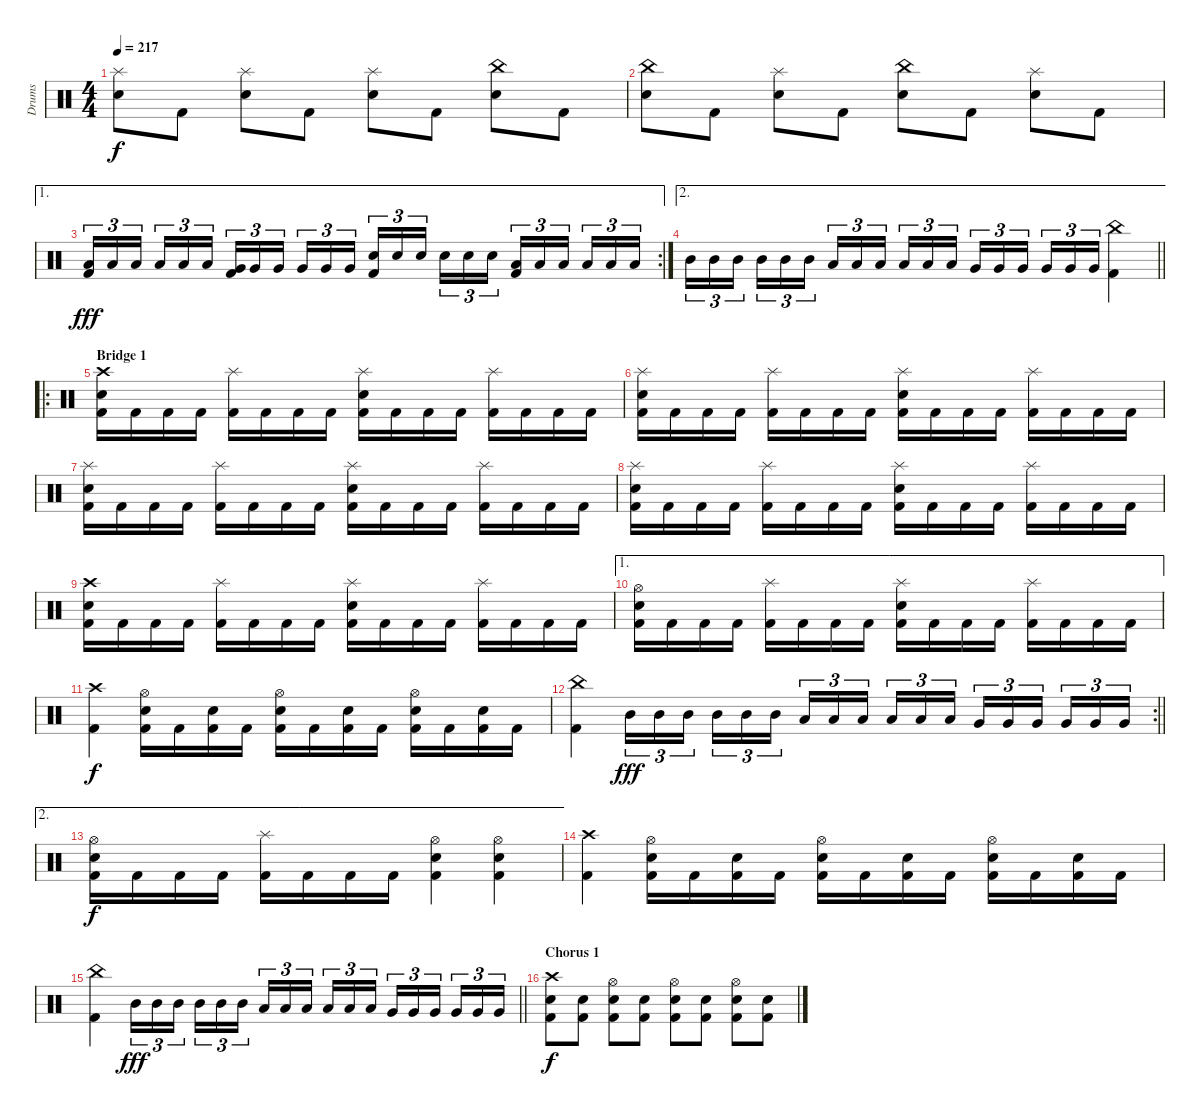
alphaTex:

\track ("Drums" "Drums") {instrument percussion}
\staff {score}
\articulation defaults
\ts (4 4)
\tempo 217
\clef neutral
\ks c
("Splash (hit)" "Electric Snare (hit)").8{dy f} "Kick (hit) 2".8 ("Splash (hit)" "Electric Snare (hit)").8 "Kick (hit) 2".8 ("Splash (hit)" "Electric Snare (hit)").8 "Kick (hit) 2".8 ("China (hit)" "Electric Snare (hit)").8 "Kick (hit) 2".8 |
("China (hit)" "Electric Snare (hit)").8 "Kick (hit) 2".8 ("Splash (hit)" "Electric Snare (hit)").8 "Kick (hit) 2".8 ("China (hit)" "Electric Snare (hit)").8 "Kick (hit) 2".8 ("Splash (hit)" "Electric Snare (hit)").8 "Kick (hit) 2".8 |
\ae 1
\rc 2
("Low Tom (hit)" "Kick (hit) 2").16{tu (3 2) dy fff} "Low Tom (hit)".16{tu (3 2)} "Low Tom (hit)".16{tu (3 2) beam splitsecondary} "Low Tom (hit)".16{tu (3 2)} "Low Tom (hit)".16{tu (3 2)} "Low Tom (hit)".16{tu (3 2)} ("Very Low Tom (hit)" "Kick (hit) 2").16{tu (3 2)} "Very Low Tom (hit)".16{tu (3 2)} "Very Low Tom (hit)".16{tu (3 2) beam splitsecondary} "Very Low Tom (hit)".16{tu (3 2)} "Very Low Tom (hit)".16{tu (3 2)} "Very Low Tom (hit)".16{tu (3 2)} ("Electric Snare (hit)" "Kick (hit) 2").16{tu (3 2)} "Electric Snare (hit)".16{tu (3 2)} "Electric Snare (hit)".16{tu (3 2) beam splitsecondary} "Electric Snare (hit)".16{tu (3 2)} "Electric Snare (hit)".16{tu (3 2)} "Electric Snare (hit)".16{tu (3 2)} ("Low Tom (hit)" "Kick (hit) 2").16{tu (3 2)} "Low Tom (hit)".16{tu (3 2)} "Low Tom (hit)".16{tu (3 2) beam splitsecondary} "Low Tom (hit)".16{tu (3 2)} "Low Tom (hit)".16{tu (3 2)} "Low Tom (hit)".16{tu (3 2)} |
\ae 2
\barLineRight lightlight "Mid Tom (hit)".16{tu (3 2)} "Mid Tom (hit)".16{tu (3 2)} "Mid Tom (hit)".16{tu (3 2) beam splitsecondary} "Mid Tom (hit)".16{tu (3 2)} "Mid Tom (hit)".16{tu (3 2)} "Mid Tom (hit)".16{tu (3 2)} "Low Tom (hit)".16{tu (3 2)} "Low Tom (hit)".16{tu (3 2)} "Low Tom (hit)".16{tu (3 2) beam splitsecondary} "Low Tom (hit)".16{tu (3 2)} "Low Tom (hit)".16{tu (3 2)} "Low Tom (hit)".16{tu (3 2)} "Very Low Tom (hit)".16{tu (3 2)} "Very Low Tom (hit)".16{tu (3 2)} "Very Low Tom (hit)".16{tu (3 2) beam splitsecondary} "Very Low Tom (hit)".16{tu (3 2)} "Very Low Tom (hit)".16{tu (3 2)} "Very Low Tom (hit)".16{tu (3 2)}
("China (hit)" "Kick (hit) 2").4 |
\ro
\section ("" "Bridge 1")
("Crash high (hit)" "Electric Snare (hit)" "Kick (hit) 2").16 "Kick (hit) 2".16 "Kick (hit) 2".16 "Kick (hit) 2".16 ("Splash (hit)" "Kick (hit) 2").16 "Kick (hit) 2".16 "Kick (hit) 2".16 "Kick (hit) 2".16 ("Splash (hit)" "Electric Snare (hit)" "Kick (hit) 2").16 "Kick (hit) 2".16 "Kick (hit) 2".16 "Kick (hit) 2".16 ("Splash (hit)" "Kick (hit) 2").16 "Kick (hit) 2".16 "Kick (hit) 2".16 "Kick (hit) 2".16 |
("Splash (hit)" "Electric Snare (hit)" "Kick (hit) 2").16 "Kick (hit) 2".16 "Kick (hit) 2".16 "Kick (hit) 2".16 ("Splash (hit)" "Kick (hit) 2").16 "Kick (hit) 2".16 "Kick (hit) 2".16 "Kick (hit) 2".16 ("Splash (hit)" "Electric Snare (hit)" "Kick (hit) 2").16 "Kick (hit) 2".16 "Kick (hit) 2".16 "Kick (hit) 2".16 ("Splash (hit)" "Kick (hit) 2").16 "Kick (hit) 2".16 "Kick (hit) 2".16 "Kick (hit) 2".16 |
("Splash (hit)" "Electric Snare (hit)" "Kick (hit) 2").16 "Kick (hit) 2".16 "Kick (hit) 2".16 "Kick (hit) 2".16 ("Splash (hit)" "Kick (hit) 2").16 "Kick (hit) 2".16 "Kick (hit) 2".16 "Kick (hit) 2".16 ("Splash (hit)" "Electric Snare (hit)" "Kick (hit) 2").16 "Kick (hit) 2".16 "Kick (hit) 2".16 "Kick (hit) 2".16 ("Splash (hit)" "Kick (hit) 2").16 "Kick (hit) 2".16 "Kick (hit) 2".16 "Kick (hit) 2".16 |
("Splash (hit)" "Electric Snare (hit)" "Kick (hit) 2").16 "Kick (hit) 2".16 "Kick (hit) 2".16 "Kick (hit) 2".16 ("Splash (hit)" "Kick (hit) 2").16 "Kick (hit) 2".16 "Kick (hit) 2".16 "Kick (hit) 2".16 ("Splash (hit)" "Electric Snare (hit)" "Kick (hit) 2").16 "Kick (hit) 2".16 "Kick (hit) 2".16 "Kick (hit) 2".16 ("Splash (hit)" "Kick (hit) 2").16 "Kick (hit) 2".16 "Kick (hit) 2".16 "Kick (hit) 2".16 |
("Crash high (hit)" "Electric Snare (hit)" "Kick (hit) 2").16 "Kick (hit) 2".16 "Kick (hit) 2".16 "Kick (hit) 2".16 ("Splash (hit)" "Kick (hit) 2").16 "Kick (hit) 2".16 "Kick (hit) 2".16 "Kick (hit) 2".16 ("Splash (hit)" "Electric Snare (hit)" "Kick (hit) 2").16 "Kick (hit) 2".16 "Kick (hit) 2".16 "Kick (hit) 2".16 ("Splash (hit)" "Kick (hit) 2").16 "Kick (hit) 2".16 "Kick (hit) 2".16 "Kick (hit) 2".16 |
\ae 1
("Hi-Hat (open)" "Electric Snare (hit)" "Kick (hit) 2").16 "Kick (hit) 2".16 "Kick (hit) 2".16 "Kick (hit) 2".16 ("Splash (hit)" "Kick (hit) 2").16 "Kick (hit) 2".16 "Kick (hit) 2".16 "Kick (hit) 2".16 ("Splash (hit)" "Electric Snare (hit)" "Kick (hit) 2").16 "Kick (hit) 2".16 "Kick (hit) 2".16 "Kick (hit) 2".16 ("Splash (hit)" "Kick (hit) 2").16 "Kick (hit) 2".16 "Kick (hit) 2".16 "Kick (hit) 2".16 |
("Crash high (hit)" "Kick (hit) 2").4{dy f} ("Hi-Hat (open)" "Electric Snare (hit)" "Kick (hit) 2").16 "Kick (hit) 2".16 ("Electric Snare (hit)" "Kick (hit) 2").16 "Kick (hit) 2".16 ("Hi-Hat (open)" "Electric Snare (hit)" "Kick (hit) 2").16 "Kick (hit) 2".16 ("Electric Snare (hit)" "Kick (hit) 2").16 "Kick (hit) 2".16 ("Hi-Hat (open)" "Electric Snare (hit)" "Kick (hit) 2").16 "Kick (hit) 2".16 ("Electric Snare (hit)" "Kick (hit) 2").16 "Kick (hit) 2".16 |
\rc 2
\barLineRight lightlight
("China (hit)" "Kick (hit) 2").4 "Mid Tom (hit)".16{tu (3 2) dy fff} "Mid Tom (hit)".16{tu (3 2)} "Mid Tom (hit)".16{tu (3 2) beam splitsecondary} "Mid Tom (hit)".16{tu (3 2)} "Mid Tom (hit)".16{tu (3 2)} "Mid Tom (hit)".16{tu (3 2)} "Low Tom (hit)".16{tu (3 2)} "Low Tom (hit)".16{tu (3 2)} "Low Tom (hit)".16{tu (3 2) beam splitsecondary} "Low Tom (hit)".16{tu (3 2)} "Low Tom (hit)".16{tu (3 2)} "Low Tom (hit)".16{tu (3 2)} "Very Low Tom (hit)".16{tu (3 2)} "Very Low Tom (hit)".16{tu (3 2)} "Very Low Tom (hit)".16{tu (3 2) beam splitsecondary} "Very Low Tom (hit)".16{tu (3 2)} "Very Low Tom (hit)".16{tu (3 2)} "Very Low Tom (hit)".16{tu (3 2)} |
\ae 2
("Hi-Hat (open)" "Electric Snare (hit)" "Kick (hit) 2").16{dy f} "Kick (hit) 2".16 "Kick (hit) 2".16 "Kick (hit) 2".16 ("Splash (hit)" "Kick (hit) 2").16 "Kick (hit) 2".16 "Kick (hit) 2".16 "Kick (hit) 2".16 ("Hi-Hat (open)" "Electric Snare (hit)" "Kick (hit) 2").4 ("Hi-Hat (open)" "Electric Snare (hit)" "Kick (hit) 2").4 |
("Crash high (hit)" "Kick (hit) 2").4 ("Hi-Hat (open)" "Electric Snare (hit)" "Kick (hit) 2").16 "Kick (hit) 2".16 ("Electric Snare (hit)" "Kick (hit) 2").16 "Kick (hit) 2".16 ("Hi-Hat (open)" "Electric Snare (hit)" "Kick (hit) 2").16 "Kick (hit) 2".16 ("Electric Snare (hit)" "Kick (hit) 2").16 "Kick (hit) 2".16 ("Hi-Hat (open)" "Electric Snare (hit)" "Kick (hit) 2").16 "Kick (hit) 2".16 ("Electric Snare (hit)" "Kick (hit) 2").16 "Kick (hit) 2".16 |
\barLineRight lightlight
("China (hit)" "Kick (hit) 2").4 "Mid Tom (hit)".16{tu (3 2) dy fff} "Mid Tom (hit)".16{tu (3 2)} "Mid Tom (hit)".16{tu (3 2) beam splitsecondary} "Mid Tom (hit)".16{tu (3 2)} "Mid Tom (hit)".16{tu (3 2)} "Mid Tom (hit)".16{tu (3 2)} "Low Tom (hit)".16{tu (3 2)} "Low Tom (hit)".16{tu (3 2)} "Low Tom (hit)".16{tu (3 2) beam splitsecondary} "Low Tom (hit)".16{tu (3 2)} "Low Tom (hit)".16{tu (3 2)} "Low Tom (hit)".16{tu (3 2)} "Very Low Tom (hit)".16{tu (3 2)} "Very Low Tom (hit)".16{tu (3 2)} "Very Low Tom (hit)".16{tu (3 2) beam splitsecondary} "Very Low Tom (hit)".16{tu (3 2)} "Very Low Tom (hit)".16{tu (3 2)} "Very Low Tom (hit)".16{tu (3 2)} |
\section ("" "Chorus 1")
("Crash high (hit)" "Electric Snare (hit)" "Kick (hit) 2").8{dy f} ("Electric Snare (hit)" "Kick (hit) 2").8 ("Hi-Hat (open)" "Electric Snare (hit)" "Kick (hit) 2").8 ("Electric Snare (hit)" "Kick (hit) 2").8 ("Hi-Hat (open)" "Electric Snare (hit)" "Kick (hit) 2").8 ("Electric Snare (hit)" "Kick (hit) 2").8 ("Hi-Hat (open)" "Electric Snare (hit)" "Kick (hit) 2").8 ("Electric Snare (hit)" "Kick (hit) 2").8
